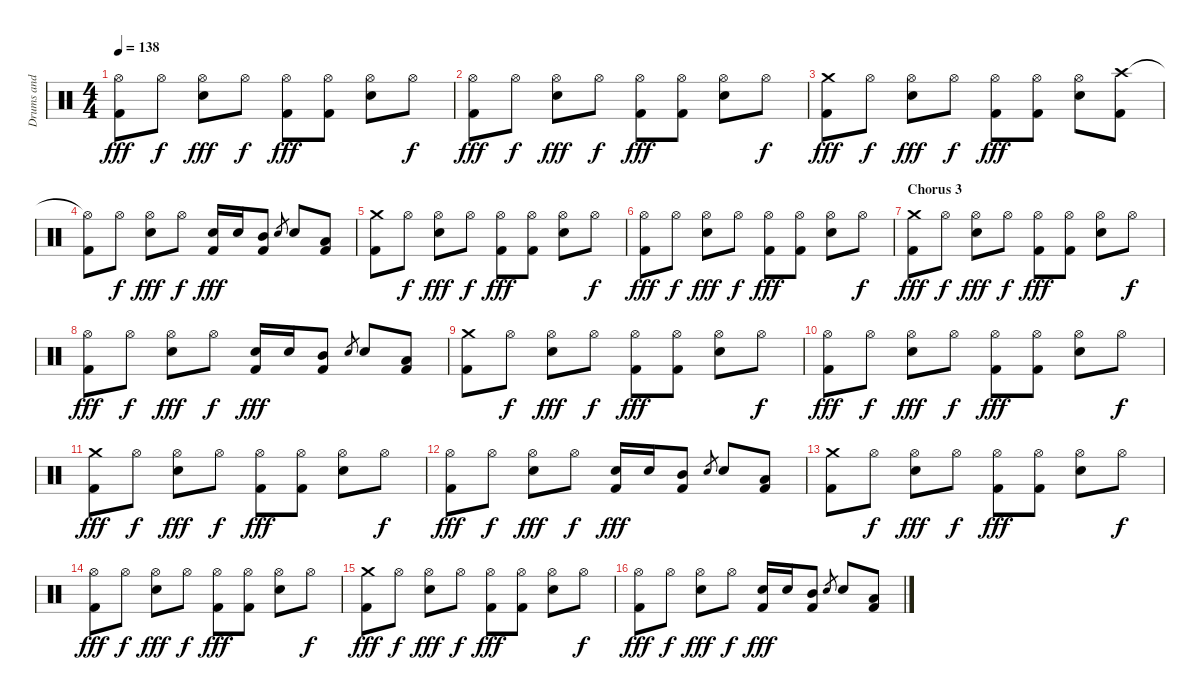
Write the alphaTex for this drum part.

\track ("Drums and Percussion" "Drums and ") {instrument percussion}
\staff {score}
\articulation defaults
\ts (4 4)
\tempo 138
\clef neutral
\ks c
("Hi-Hat (open)" "Kick (hit) 2").8{dy fff} "Hi-Hat (open)".8{dy f} ("Hi-Hat (open)" "Snare (hit) 2").8{dy fff} "Hi-Hat (open)".8{dy f} ("Hi-Hat (open)" "Kick (hit) 2").8{dy fff} ("Hi-Hat (open)" "Kick (hit) 2").8 ("Hi-Hat (open)" "Snare (hit) 2").8 "Hi-Hat (open)".8{dy f} |
("Hi-Hat (open)" "Kick (hit) 2").8{dy fff} "Hi-Hat (open)".8{dy f} ("Hi-Hat (open)" "Snare (hit) 2").8{dy fff} "Hi-Hat (open)".8{dy f} ("Hi-Hat (open)" "Kick (hit) 2").8{dy fff} ("Hi-Hat (open)" "Kick (hit) 2").8 ("Hi-Hat (open)" "Snare (hit) 2").8 "Hi-Hat (open)".8{dy f} |
("Crash medium (hit)" "Kick (hit) 2").8{dy fff} "Hi-Hat (open)".8{dy f} ("Hi-Hat (open)" "Snare (hit) 2").8{dy fff} "Hi-Hat (open)".8{dy f} ("Hi-Hat (open)" "Kick (hit) 2").8{dy fff} ("Hi-Hat (open)" "Kick (hit) 2").8 ("Hi-Hat (open)" "Snare (hit) 2").8 ("Crash high (hit)" "Kick (hit) 2").8 |
("Hi-Hat (open)"{t} "Kick (hit) 2").8 "Hi-Hat (open)".8{dy f} ("Hi-Hat (open)" "Snare (hit) 2").8{dy fff} "Hi-Hat (open)".8{dy f} ("Snare (hit) 2" "Kick (hit) 2").16{dy fff} "Snare (hit) 2".16 ("Mid Tom (hit)" "Kick (hit) 2").8 "Snare (hit) 2".8{gr} "Snare (hit) 2".8 ("Low Tom (hit)" "Kick (hit) 2").8 |
("Crash medium (hit)" "Kick (hit) 2").8 "Hi-Hat (open)".8{dy f} ("Hi-Hat (open)" "Snare (hit) 2").8{dy fff} "Hi-Hat (open)".8{dy f} ("Hi-Hat (open)" "Kick (hit) 2").8{dy fff} ("Hi-Hat (open)" "Kick (hit) 2").8 ("Hi-Hat (open)" "Snare (hit) 2").8 "Hi-Hat (open)".8{dy f} |
("Hi-Hat (open)" "Kick (hit) 2").8{dy fff} "Hi-Hat (open)".8{dy f} ("Hi-Hat (open)" "Snare (hit) 2").8{dy fff} "Hi-Hat (open)".8{dy f} ("Hi-Hat (open)" "Kick (hit) 2").8{dy fff} ("Hi-Hat (open)" "Kick (hit) 2").8 ("Hi-Hat (open)" "Snare (hit) 2").8 "Hi-Hat (open)".8{dy f} |
\section ("" "Chorus 3")
("Crash medium (hit)" "Kick (hit) 2").8{dy fff} "Hi-Hat (open)".8{dy f} ("Hi-Hat (open)" "Snare (hit) 2").8{dy fff} "Hi-Hat (open)".8{dy f} ("Hi-Hat (open)" "Kick (hit) 2").8{dy fff} ("Hi-Hat (open)" "Kick (hit) 2").8 ("Hi-Hat (open)" "Snare (hit) 2").8 "Hi-Hat (open)".8{dy f} |
("Hi-Hat (open)" "Kick (hit) 2").8{dy fff} "Hi-Hat (open)".8{dy f} ("Hi-Hat (open)" "Snare (hit) 2").8{dy fff} "Hi-Hat (open)".8{dy f} ("Snare (hit) 2" "Kick (hit) 2").16{dy fff} "Snare (hit) 2".16 ("Mid Tom (hit)" "Kick (hit) 2").8 "Snare (hit) 2".8{gr} "Snare (hit) 2".8 ("Low Tom (hit)" "Kick (hit) 2").8 |
("Crash medium (hit)" "Kick (hit) 2").8 "Hi-Hat (open)".8{dy f} ("Hi-Hat (open)" "Snare (hit) 2").8{dy fff} "Hi-Hat (open)".8{dy f} ("Hi-Hat (open)" "Kick (hit) 2").8{dy fff} ("Hi-Hat (open)" "Kick (hit) 2").8 ("Hi-Hat (open)" "Snare (hit) 2").8 "Hi-Hat (open)".8{dy f} |
("Hi-Hat (open)" "Kick (hit) 2").8{dy fff} "Hi-Hat (open)".8{dy f} ("Hi-Hat (open)" "Snare (hit) 2").8{dy fff} "Hi-Hat (open)".8{dy f} ("Hi-Hat (open)" "Kick (hit) 2").8{dy fff} ("Hi-Hat (open)" "Kick (hit) 2").8 ("Hi-Hat (open)" "Snare (hit) 2").8 "Hi-Hat (open)".8{dy f} |
("Crash medium (hit)" "Kick (hit) 2").8{dy fff} "Hi-Hat (open)".8{dy f} ("Hi-Hat (open)" "Snare (hit) 2").8{dy fff} "Hi-Hat (open)".8{dy f} ("Hi-Hat (open)" "Kick (hit) 2").8{dy fff} ("Hi-Hat (open)" "Kick (hit) 2").8 ("Hi-Hat (open)" "Snare (hit) 2").8 "Hi-Hat (open)".8{dy f} |
("Hi-Hat (open)" "Kick (hit) 2").8{dy fff} "Hi-Hat (open)".8{dy f} ("Hi-Hat (open)" "Snare (hit) 2").8{dy fff} "Hi-Hat (open)".8{dy f} ("Snare (hit) 2" "Kick (hit) 2").16{dy fff} "Snare (hit) 2".16 ("Mid Tom (hit)" "Kick (hit) 2").8 "Snare (hit) 2".8{gr} "Snare (hit) 2".8 ("Low Tom (hit)" "Kick (hit) 2").8 |
("Crash medium (hit)" "Kick (hit) 2").8 "Hi-Hat (open)".8{dy f} ("Hi-Hat (open)" "Snare (hit) 2").8{dy fff} "Hi-Hat (open)".8{dy f} ("Hi-Hat (open)" "Kick (hit) 2").8{dy fff} ("Hi-Hat (open)" "Kick (hit) 2").8 ("Hi-Hat (open)" "Snare (hit) 2").8 "Hi-Hat (open)".8{dy f} |
("Hi-Hat (open)" "Kick (hit) 2").8{dy fff} "Hi-Hat (open)".8{dy f} ("Hi-Hat (open)" "Snare (hit) 2").8{dy fff} "Hi-Hat (open)".8{dy f} ("Hi-Hat (open)" "Kick (hit) 2").8{dy fff} ("Hi-Hat (open)" "Kick (hit) 2").8 ("Hi-Hat (open)" "Snare (hit) 2").8 "Hi-Hat (open)".8{dy f} |
("Crash medium (hit)" "Kick (hit) 2").8{dy fff} "Hi-Hat (open)".8{dy f} ("Hi-Hat (open)" "Snare (hit) 2").8{dy fff} "Hi-Hat (open)".8{dy f} ("Hi-Hat (open)" "Kick (hit) 2").8{dy fff} ("Hi-Hat (open)" "Kick (hit) 2").8 ("Hi-Hat (open)" "Snare (hit) 2").8 "Hi-Hat (open)".8{dy f} |
("Hi-Hat (open)" "Kick (hit) 2").8{dy fff} "Hi-Hat (open)".8{dy f} ("Hi-Hat (open)" "Snare (hit) 2").8{dy fff} "Hi-Hat (open)".8{dy f} ("Snare (hit) 2" "Kick (hit) 2").16{dy fff} "Snare (hit) 2".16 ("Mid Tom (hit)" "Kick (hit) 2").8 "Snare (hit) 2".8{gr} "Snare (hit) 2".8 ("Low Tom (hit)" "Kick (hit) 2").8
